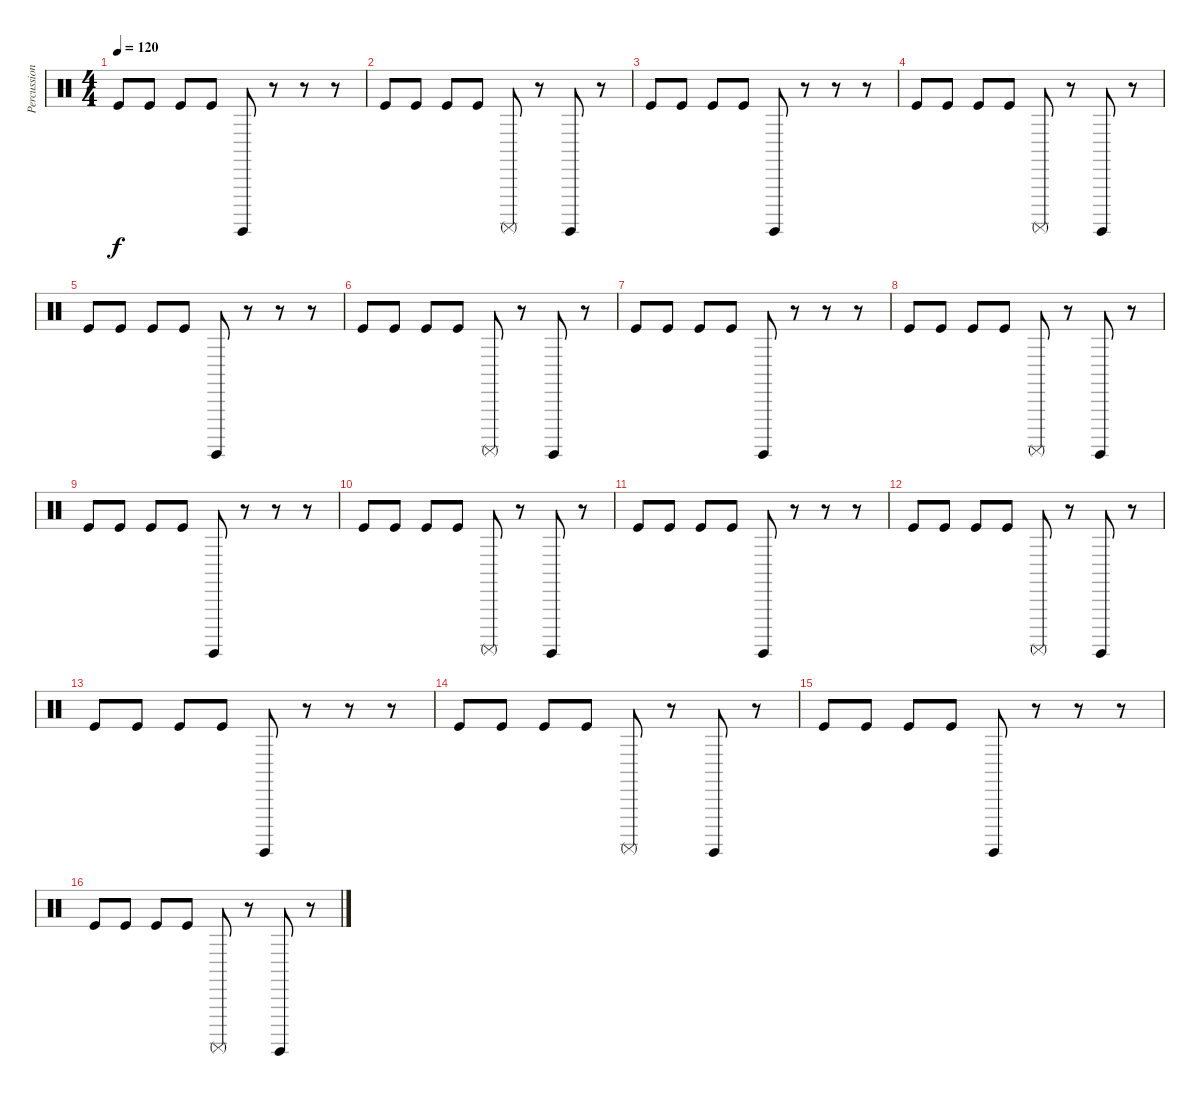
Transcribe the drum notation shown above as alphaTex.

\track ("Percussion" "Percussion") {instrument percussion}
\staff {score}
\articulation defaults
\ts (4 4)
\tempo 120
\clef neutral
\ks c "Kick (hit)".8{dy f} "Kick (hit)".8 "Kick (hit)".8 "Kick (hit)".8 "Surdo (hit)".8
r.8 r.8 r.8 |
"Kick (hit)".8 "Kick (hit)".8 "Kick (hit)".8 "Kick (hit)".8 "Surdo (mute)".8 r.8 "Surdo (hit)".8 r.8 |
"Kick (hit)".8 "Kick (hit)".8 "Kick (hit)".8 "Kick (hit)".8 "Surdo (hit)".8 r.8 r.8 r.8 |
"Kick (hit)".8 "Kick (hit)".8 "Kick (hit)".8 "Kick (hit)".8 "Surdo (mute)".8 r.8 "Surdo (hit)".8 r.8 |
"Kick (hit)".8 "Kick (hit)".8 "Kick (hit)".8 "Kick (hit)".8 "Surdo (hit)".8 r.8 r.8 r.8 |
"Kick (hit)".8 "Kick (hit)".8 "Kick (hit)".8 "Kick (hit)".8 "Surdo (mute)".8 r.8 "Surdo (hit)".8 r.8 |
"Kick (hit)".8 "Kick (hit)".8 "Kick (hit)".8 "Kick (hit)".8 "Surdo (hit)".8 r.8 r.8 r.8 |
"Kick (hit)".8 "Kick (hit)".8 "Kick (hit)".8 "Kick (hit)".8 "Surdo (mute)".8 r.8 "Surdo (hit)".8 r.8 |
"Kick (hit)".8 "Kick (hit)".8 "Kick (hit)".8 "Kick (hit)".8 "Surdo (hit)".8 r.8 r.8 r.8 |
"Kick (hit)".8 "Kick (hit)".8 "Kick (hit)".8 "Kick (hit)".8 "Surdo (mute)".8 r.8 "Surdo (hit)".8 r.8 |
"Kick (hit)".8 "Kick (hit)".8 "Kick (hit)".8 "Kick (hit)".8 "Surdo (hit)".8 r.8 r.8 r.8 |
"Kick (hit)".8 "Kick (hit)".8 "Kick (hit)".8 "Kick (hit)".8 "Surdo (mute)".8 r.8 "Surdo (hit)".8 r.8 |
"Kick (hit)".8 "Kick (hit)".8 "Kick (hit)".8 "Kick (hit)".8 "Surdo (hit)".8 r.8 r.8 r.8 |
"Kick (hit)".8 "Kick (hit)".8 "Kick (hit)".8 "Kick (hit)".8 "Surdo (mute)".8 r.8 "Surdo (hit)".8 r.8 |
"Kick (hit)".8 "Kick (hit)".8 "Kick (hit)".8 "Kick (hit)".8 "Surdo (hit)".8 r.8 r.8 r.8 |
"Kick (hit)".8 "Kick (hit)".8 "Kick (hit)".8 "Kick (hit)".8 "Surdo (mute)".8 r.8 "Surdo (hit)".8 r.8
